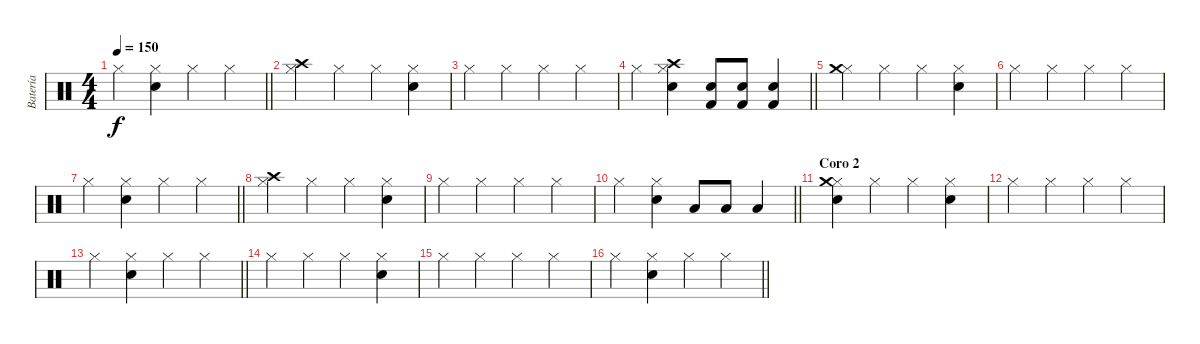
\track ("Batería" "Batería") {instrument percussion}
\staff {score}
\articulation defaults
\ts (4 4)
\tempo 150
\clef neutral
\barLineRight lightlight
\ks c "Hi-Hat (closed)".4{dy f}
("Hi-Hat (closed)" "Electric Snare (hit)").4 "Hi-Hat (closed)".4 "Hi-Hat (closed)".4 |
("Hi-Hat (closed)" "Crash high (hit)").4 "Hi-Hat (closed)".4 "Hi-Hat (closed)".4 ("Hi-Hat (closed)" "Electric Snare (hit)").4 |
"Hi-Hat (closed)".4 "Hi-Hat (closed)".4 "Hi-Hat (closed)".4 "Hi-Hat (closed)".4 |
\barLineRight lightlight "Hi-Hat (closed)".4
("Crash high (hit)" "Hi-Hat (closed)" "Snare (hit) 2").4 ("Snare (hit) 2" "Kick (hit) 2").8 ("Snare (hit) 2" "Kick (hit) 2").8 ("Snare (hit) 2" "Kick (hit) 2").4 |
("Hi-Hat (closed)" "Crash medium (hit)").4 "Hi-Hat (closed)".4 "Hi-Hat (closed)".4 ("Hi-Hat (closed)" "Electric Snare (hit)").4 |
"Hi-Hat (closed)".4 "Hi-Hat (closed)".4 "Hi-Hat (closed)".4 "Hi-Hat (closed)".4 |
\barLineRight lightlight "Hi-Hat (closed)".4
("Hi-Hat (closed)" "Electric Snare (hit)").4 "Hi-Hat (closed)".4 "Hi-Hat (closed)".4 |
("Hi-Hat (closed)" "Crash high (hit)").4 "Hi-Hat (closed)".4 "Hi-Hat (closed)".4 ("Hi-Hat (closed)" "Electric Snare (hit)").4 |
"Hi-Hat (closed)".4 "Hi-Hat (closed)".4 "Hi-Hat (closed)".4 "Hi-Hat (closed)".4 |
\barLineRight lightlight "Hi-Hat (closed)".4
("Hi-Hat (closed)" "Electric Snare (hit)").4 "Low Tom (hit)".8 "Low Tom (hit)".8 "Low Tom (hit)".4 |
\section ("" "Coro 2")
("Hi-Hat (closed)" "Electric Snare (hit)" "Crash medium (hit)").4 "Hi-Hat (closed)".4 "Hi-Hat (closed)".4 ("Hi-Hat (closed)" "Electric Snare (hit)").4 |
"Hi-Hat (closed)".4 "Hi-Hat (closed)".4 "Hi-Hat (closed)".4 "Hi-Hat (closed)".4 |
\barLineRight lightlight "Hi-Hat (closed)".4
("Hi-Hat (closed)" "Electric Snare (hit)").4 "Hi-Hat (closed)".4 "Hi-Hat (closed)".4 |
"Hi-Hat (closed)".4 "Hi-Hat (closed)".4 "Hi-Hat (closed)".4 ("Hi-Hat (closed)" "Electric Snare (hit)").4 |
"Hi-Hat (closed)".4 "Hi-Hat (closed)".4 "Hi-Hat (closed)".4 "Hi-Hat (closed)".4 |
\barLineRight lightlight "Hi-Hat (closed)".4
("Hi-Hat (closed)" "Electric Snare (hit)").4 "Hi-Hat (closed)".4 "Hi-Hat (closed)".4
